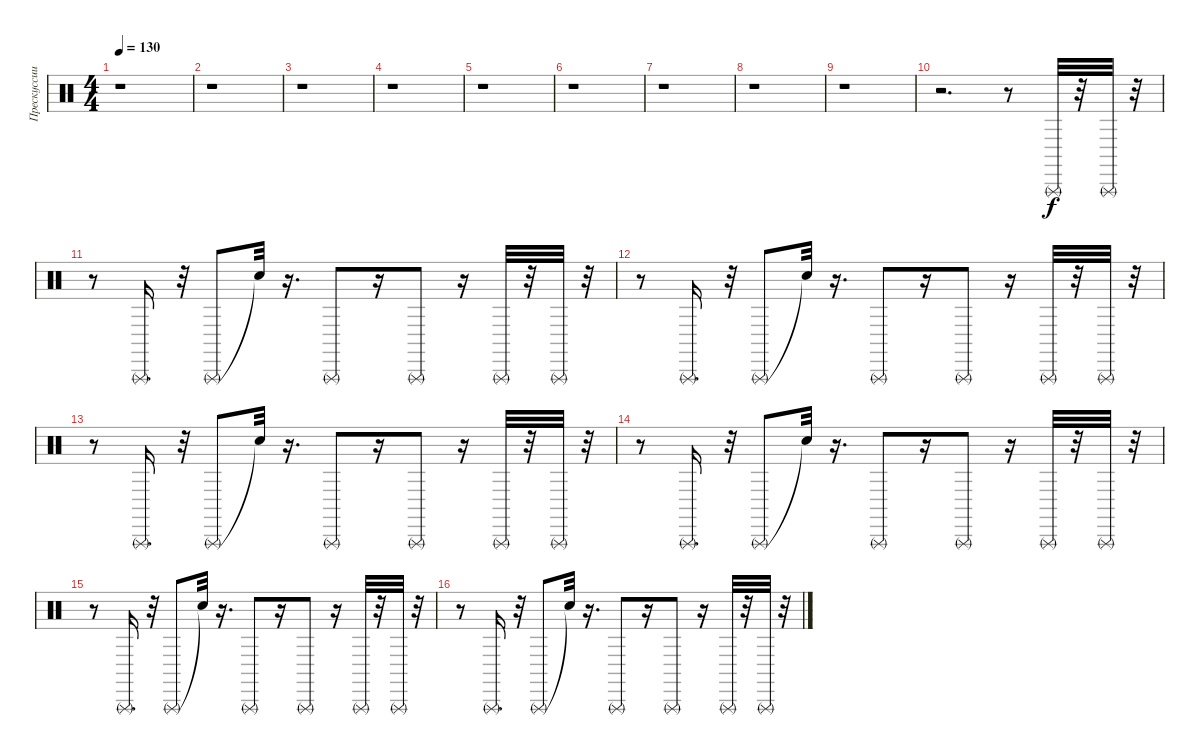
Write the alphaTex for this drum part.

\track ("Прескуссии 1" "Прескуссии") {instrument percussion}
\staff {score}
\articulation defaults
\ts (4 4)
\tempo 130
\clef neutral
\ks c
r.1{dy f} |
r.1 |
r.1 |
r.1 |
r.1 |
r.1 |
r.1 |
r.1 |
r.1 |
r.2{d} r.8 "Triangle (rnute)".32 r.32 "Triangle (rnute)".32 r.32 |
r.8 "Triangle (rnute)".16{d} r.32 "Triangle (rnute)".8 "Snare (hit)"{t}.32 r.16{d} "Triangle (rnute)".8 r.16 "Triangle (rnute)".8 r.16 "Triangle (rnute)".32 r.32 "Triangle (rnute)".32 r.32 |
r.8 "Triangle (rnute)".16{d} r.32 "Triangle (rnute)".8 "Snare (hit)"{t}.32 r.16{d} "Triangle (rnute)".8 r.16 "Triangle (rnute)".8 r.16 "Triangle (rnute)".32 r.32 "Triangle (rnute)".32 r.32 |
r.8 "Triangle (rnute)".16{d} r.32 "Triangle (rnute)".8 "Snare (hit)"{t}.32 r.16{d} "Triangle (rnute)".8 r.16 "Triangle (rnute)".8 r.16 "Triangle (rnute)".32 r.32 "Triangle (rnute)".32 r.32 |
r.8 "Triangle (rnute)".16{d} r.32 "Triangle (rnute)".8 "Snare (hit)"{t}.32 r.16{d} "Triangle (rnute)".8 r.16 "Triangle (rnute)".8 r.16 "Triangle (rnute)".32 r.32 "Triangle (rnute)".32 r.32 |
r.8 "Triangle (rnute)".16{d} r.32 "Triangle (rnute)".8 "Snare (hit)"{t}.32 r.16{d} "Triangle (rnute)".8 r.16 "Triangle (rnute)".8 r.16 "Triangle (rnute)".32 r.32 "Triangle (rnute)".32 r.32 |
r.8 "Triangle (rnute)".16{d} r.32 "Triangle (rnute)".8 "Snare (hit)"{t}.32 r.16{d} "Triangle (rnute)".8 r.16 "Triangle (rnute)".8 r.16 "Triangle (rnute)".32 r.32 "Triangle (rnute)".32 r.32
